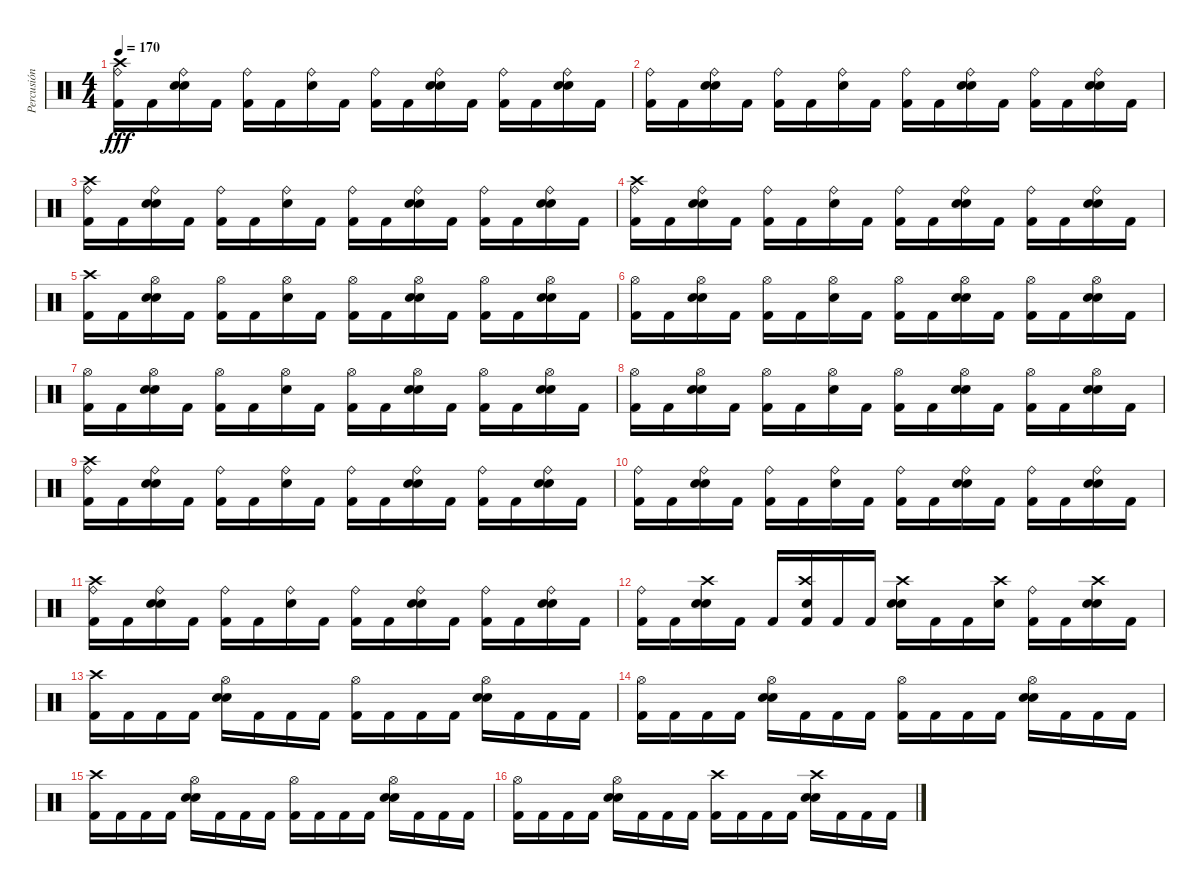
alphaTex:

\track ("Percusión" "Percusión") {instrument percussion}
\staff {score}
\articulation defaults
\ts (4 4)
\tempo 170
\clef neutral
\ks c
("Kick (hit) 2" "Ride (bell)" "Crash high (hit)").16{dy fff} "Kick (hit) 2".16 ("Snare (hit) 2" "Electric Snare (hit)" "Ride (bell)").16 "Kick (hit) 2".16 ("Kick (hit) 2" "Ride (bell)").16 "Kick (hit) 2".16 ("Snare (hit) 2" "Ride (bell)").16 "Kick (hit) 2".16 ("Kick (hit) 2" "Ride (bell)").16 "Kick (hit) 2".16 ("Snare (hit) 2" "Electric Snare (hit)" "Ride (bell)").16 "Kick (hit) 2".16 ("Kick (hit) 2" "Ride (bell)").16 "Kick (hit) 2".16 ("Snare (hit) 2" "Electric Snare (hit)" "Ride (bell)").16 "Kick (hit) 2".16 |
("Kick (hit) 2" "Ride (bell)").16 "Kick (hit) 2".16 ("Snare (hit) 2" "Electric Snare (hit)" "Ride (bell)").16 "Kick (hit) 2".16 ("Kick (hit) 2" "Ride (bell)").16 "Kick (hit) 2".16 ("Snare (hit) 2" "Ride (bell)").16 "Kick (hit) 2".16 ("Kick (hit) 2" "Ride (bell)").16 "Kick (hit) 2".16 ("Snare (hit) 2" "Electric Snare (hit)" "Ride (bell)").16 "Kick (hit) 2".16 ("Kick (hit) 2" "Ride (bell)").16 "Kick (hit) 2".16 ("Snare (hit) 2" "Electric Snare (hit)" "Ride (bell)").16 "Kick (hit) 2".16 |
("Kick (hit) 2" "Ride (bell)" "Crash high (hit)").16 "Kick (hit) 2".16 ("Snare (hit) 2" "Electric Snare (hit)" "Ride (bell)").16 "Kick (hit) 2".16 ("Kick (hit) 2" "Ride (bell)").16 "Kick (hit) 2".16 ("Snare (hit) 2" "Ride (bell)").16 "Kick (hit) 2".16 ("Kick (hit) 2" "Ride (bell)").16 "Kick (hit) 2".16 ("Snare (hit) 2" "Electric Snare (hit)" "Ride (bell)").16 "Kick (hit) 2".16 ("Kick (hit) 2" "Ride (bell)").16 "Kick (hit) 2".16 ("Snare (hit) 2" "Electric Snare (hit)" "Ride (bell)").16 "Kick (hit) 2".16 |
("Kick (hit) 2" "Ride (bell)" "Crash high (hit)").16 "Kick (hit) 2".16 ("Snare (hit) 2" "Electric Snare (hit)" "Ride (bell)").16 "Kick (hit) 2".16 ("Kick (hit) 2" "Ride (bell)").16 "Kick (hit) 2".16 ("Snare (hit) 2" "Ride (bell)").16 "Kick (hit) 2".16 ("Kick (hit) 2" "Ride (bell)").16 "Kick (hit) 2".16 ("Snare (hit) 2" "Electric Snare (hit)" "Ride (bell)").16 "Kick (hit) 2".16 ("Kick (hit) 2" "Ride (bell)").16 "Kick (hit) 2".16 ("Snare (hit) 2" "Electric Snare (hit)" "Ride (bell)").16 "Kick (hit) 2".16 |
("Kick (hit) 2" "Crash high (hit)").16 "Kick (hit) 2".16 ("Snare (hit) 2" "Electric Snare (hit)" "Hi-Hat (open)").16 "Kick (hit) 2".16 ("Kick (hit) 2" "Hi-Hat (open)").16 "Kick (hit) 2".16 ("Snare (hit) 2" "Hi-Hat (open)").16 "Kick (hit) 2".16 ("Kick (hit) 2" "Hi-Hat (open)").16 "Kick (hit) 2".16 ("Snare (hit) 2" "Electric Snare (hit)" "Hi-Hat (open)").16 "Kick (hit) 2".16 ("Kick (hit) 2" "Hi-Hat (open)").16 "Kick (hit) 2".16 ("Snare (hit) 2" "Electric Snare (hit)" "Hi-Hat (open)").16 "Kick (hit) 2".16 |
("Kick (hit) 2" "Hi-Hat (open)").16 "Kick (hit) 2".16 ("Snare (hit) 2" "Electric Snare (hit)" "Hi-Hat (open)").16 "Kick (hit) 2".16 ("Kick (hit) 2" "Hi-Hat (open)").16 "Kick (hit) 2".16 ("Snare (hit) 2" "Hi-Hat (open)").16 "Kick (hit) 2".16 ("Kick (hit) 2" "Hi-Hat (open)").16 "Kick (hit) 2".16 ("Snare (hit) 2" "Electric Snare (hit)" "Hi-Hat (open)").16 "Kick (hit) 2".16 ("Kick (hit) 2" "Hi-Hat (open)").16 "Kick (hit) 2".16 ("Snare (hit) 2" "Electric Snare (hit)" "Hi-Hat (open)").16 "Kick (hit) 2".16 |
("Kick (hit) 2" "Hi-Hat (open)").16 "Kick (hit) 2".16 ("Snare (hit) 2" "Electric Snare (hit)" "Hi-Hat (open)").16 "Kick (hit) 2".16 ("Kick (hit) 2" "Hi-Hat (open)").16 "Kick (hit) 2".16 ("Snare (hit) 2" "Hi-Hat (open)").16 "Kick (hit) 2".16 ("Kick (hit) 2" "Hi-Hat (open)").16 "Kick (hit) 2".16 ("Snare (hit) 2" "Electric Snare (hit)" "Hi-Hat (open)").16 "Kick (hit) 2".16 ("Kick (hit) 2" "Hi-Hat (open)").16 "Kick (hit) 2".16 ("Snare (hit) 2" "Electric Snare (hit)" "Hi-Hat (open)").16 "Kick (hit) 2".16 |
("Kick (hit) 2" "Hi-Hat (open)").16 "Kick (hit) 2".16 ("Snare (hit) 2" "Electric Snare (hit)" "Hi-Hat (open)").16 "Kick (hit) 2".16 ("Kick (hit) 2" "Hi-Hat (open)").16 "Kick (hit) 2".16 ("Snare (hit) 2" "Hi-Hat (open)").16 "Kick (hit) 2".16 ("Kick (hit) 2" "Hi-Hat (open)").16 "Kick (hit) 2".16 ("Snare (hit) 2" "Electric Snare (hit)" "Hi-Hat (open)").16 "Kick (hit) 2".16 ("Kick (hit) 2" "Hi-Hat (open)").16 "Kick (hit) 2".16 ("Snare (hit) 2" "Electric Snare (hit)" "Hi-Hat (open)").16 "Kick (hit) 2".16 |
("Kick (hit) 2" "Ride (bell)" "Crash high (hit)").16 "Kick (hit) 2".16 ("Snare (hit) 2" "Electric Snare (hit)" "Ride (bell)").16 "Kick (hit) 2".16 ("Kick (hit) 2" "Ride (bell)").16 "Kick (hit) 2".16 ("Snare (hit) 2" "Ride (bell)").16 "Kick (hit) 2".16 ("Kick (hit) 2" "Ride (bell)").16 "Kick (hit) 2".16 ("Snare (hit) 2" "Electric Snare (hit)" "Ride (bell)").16 "Kick (hit) 2".16 ("Kick (hit) 2" "Ride (bell)").16 "Kick (hit) 2".16 ("Snare (hit) 2" "Electric Snare (hit)" "Ride (bell)").16 "Kick (hit) 2".16 |
("Kick (hit) 2" "Ride (bell)").16 "Kick (hit) 2".16 ("Snare (hit) 2" "Electric Snare (hit)" "Ride (bell)").16 "Kick (hit) 2".16 ("Kick (hit) 2" "Ride (bell)").16 "Kick (hit) 2".16 ("Snare (hit) 2" "Ride (bell)").16 "Kick (hit) 2".16 ("Kick (hit) 2" "Ride (bell)").16 "Kick (hit) 2".16 ("Snare (hit) 2" "Electric Snare (hit)" "Ride (bell)").16 "Kick (hit) 2".16 ("Kick (hit) 2" "Ride (bell)").16 "Kick (hit) 2".16 ("Snare (hit) 2" "Electric Snare (hit)" "Ride (bell)").16 "Kick (hit) 2".16 |
("Kick (hit) 2" "Ride (bell)" "Crash high (hit)").16 "Kick (hit) 2".16 ("Snare (hit) 2" "Electric Snare (hit)" "Ride (bell)").16 "Kick (hit) 2".16 ("Kick (hit) 2" "Ride (bell)").16 "Kick (hit) 2".16 ("Snare (hit) 2" "Ride (bell)").16 "Kick (hit) 2".16 ("Kick (hit) 2" "Ride (bell)").16 "Kick (hit) 2".16 ("Snare (hit) 2" "Electric Snare (hit)" "Ride (bell)").16 "Kick (hit) 2".16 ("Kick (hit) 2" "Ride (bell)").16 "Kick (hit) 2".16 ("Snare (hit) 2" "Electric Snare (hit)" "Ride (bell)").16 "Kick (hit) 2".16 |
("Kick (hit) 2" "Ride (bell)").16 "Kick (hit) 2".16 ("Snare (hit) 2" "Electric Snare (hit)" "Crash high (hit)").16 "Kick (hit) 2".16 "Kick (hit) 2".16 ("Kick (hit) 2" "Snare (hit) 2" "Crash high (hit)").16 "Kick (hit) 2".16 "Kick (hit) 2".16 ("Snare (hit) 2" "Electric Snare (hit)" "Crash high (hit)").16 "Kick (hit) 2".16 "Kick (hit) 2".16 ("Snare (hit) 2" "Crash high (hit)").16 ("Kick (hit) 2" "Ride (bell)").16 "Kick (hit) 2".16 ("Snare (hit) 2" "Electric Snare (hit)" "Crash high (hit)").16 "Kick (hit) 2".16 |
("Kick (hit) 2" "Crash high (hit)").16 "Kick (hit) 2".16 "Kick (hit) 2".16 "Kick (hit) 2".16 ("Snare (hit) 2" "Electric Snare (hit)" "Hi-Hat (open)").16 "Kick (hit) 2".16 "Kick (hit) 2".16 "Kick (hit) 2".16 ("Kick (hit) 2" "Hi-Hat (open)").16 "Kick (hit) 2".16 "Kick (hit) 2".16 "Kick (hit) 2".16 ("Snare (hit) 2" "Electric Snare (hit)" "Hi-Hat (open)").16 "Kick (hit) 2".16 "Kick (hit) 2".16 "Kick (hit) 2".16 |
("Kick (hit) 2" "Hi-Hat (open)").16 "Kick (hit) 2".16 "Kick (hit) 2".16 "Kick (hit) 2".16 ("Snare (hit) 2" "Electric Snare (hit)" "Hi-Hat (open)").16 "Kick (hit) 2".16 "Kick (hit) 2".16 "Kick (hit) 2".16 ("Kick (hit) 2" "Hi-Hat (open)").16 "Kick (hit) 2".16 "Kick (hit) 2".16 "Kick (hit) 2".16 ("Snare (hit) 2" "Electric Snare (hit)" "Hi-Hat (open)").16 "Kick (hit) 2".16 "Kick (hit) 2".16 "Kick (hit) 2".16 |
("Kick (hit) 2" "Crash high (hit)").16 "Kick (hit) 2".16 "Kick (hit) 2".16 "Kick (hit) 2".16 ("Snare (hit) 2" "Electric Snare (hit)" "Hi-Hat (open)").16 "Kick (hit) 2".16 "Kick (hit) 2".16 "Kick (hit) 2".16 ("Kick (hit) 2" "Hi-Hat (open)").16 "Kick (hit) 2".16 "Kick (hit) 2".16 "Kick (hit) 2".16 ("Snare (hit) 2" "Electric Snare (hit)" "Hi-Hat (open)").16 "Kick (hit) 2".16 "Kick (hit) 2".16 "Kick (hit) 2".16 |
("Kick (hit) 2" "Hi-Hat (open)").16 "Kick (hit) 2".16 "Kick (hit) 2".16 "Kick (hit) 2".16 ("Snare (hit) 2" "Electric Snare (hit)" "Hi-Hat (open)").16 "Kick (hit) 2".16 "Kick (hit) 2".16 "Kick (hit) 2".16 ("Kick (hit) 2" "Crash high (hit)").16 "Kick (hit) 2".16 "Kick (hit) 2".16 "Kick (hit) 2".16 ("Snare (hit) 2" "Electric Snare (hit)" "Crash high (hit)").16 "Kick (hit) 2".16 "Kick (hit) 2".16 "Kick (hit) 2".16
